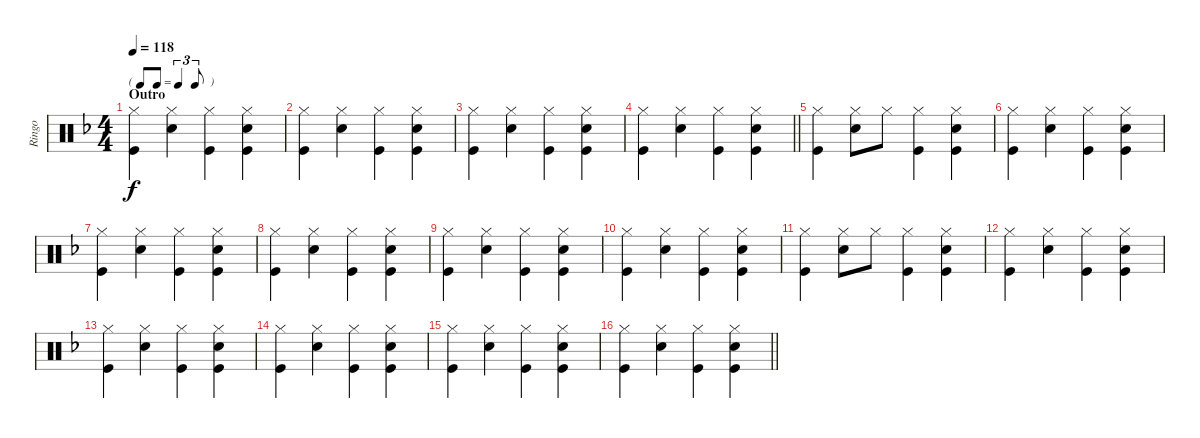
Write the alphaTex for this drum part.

\track ("Ringo" "Ringo") {instrument percussion}
\staff {score}
\articulation defaults
\ts (4 4)
\tf triplet8th
\section ("" "Outro")
\tempo 118
\clef neutral
\ks f
("Hi-Hat (closed)" "Kick (hit)").4{dy f} ("Hi-Hat (closed)" "Snare (hit) 2").4 ("Hi-Hat (closed)" "Kick (hit)").4 ("Hi-Hat (closed)" "Snare (hit) 2" "Kick (hit)").4 |
("Hi-Hat (closed)" "Kick (hit)").4 ("Hi-Hat (closed)" "Snare (hit) 2").4 ("Hi-Hat (closed)" "Kick (hit)").4 ("Hi-Hat (closed)" "Snare (hit) 2" "Kick (hit)").4 |
("Hi-Hat (closed)" "Kick (hit)").4 ("Hi-Hat (closed)" "Snare (hit) 2").4 ("Hi-Hat (closed)" "Kick (hit)").4 ("Hi-Hat (closed)" "Snare (hit) 2" "Kick (hit)").4 |
\barLineRight lightlight
("Hi-Hat (closed)" "Kick (hit)").4 ("Hi-Hat (closed)" "Snare (hit) 2").4 ("Hi-Hat (closed)" "Kick (hit)").4 ("Hi-Hat (closed)" "Snare (hit) 2" "Kick (hit)").4 |
("Hi-Hat (closed)" "Kick (hit)").4 ("Hi-Hat (closed)" "Snare (hit) 2").8 "Hi-Hat (closed)".8 ("Hi-Hat (closed)" "Kick (hit)").4 ("Hi-Hat (closed)" "Snare (hit) 2" "Kick (hit)").4 |
("Hi-Hat (closed)" "Kick (hit)").4 ("Hi-Hat (closed)" "Snare (hit) 2").4 ("Hi-Hat (closed)" "Kick (hit)").4 ("Hi-Hat (closed)" "Snare (hit) 2" "Kick (hit)").4 |
("Hi-Hat (closed)" "Kick (hit)").4 ("Hi-Hat (closed)" "Snare (hit) 2").4 ("Hi-Hat (closed)" "Kick (hit)").4 ("Hi-Hat (closed)" "Snare (hit) 2" "Kick (hit)").4 |
("Hi-Hat (closed)" "Kick (hit)").4 ("Hi-Hat (closed)" "Snare (hit) 2").4 ("Hi-Hat (closed)" "Kick (hit)").4 ("Hi-Hat (closed)" "Snare (hit) 2" "Kick (hit)").4 |
("Hi-Hat (closed)" "Kick (hit)").4 ("Hi-Hat (closed)" "Snare (hit) 2").4 ("Hi-Hat (closed)" "Kick (hit)").4 ("Hi-Hat (closed)" "Snare (hit) 2" "Kick (hit)").4 |
("Hi-Hat (closed)" "Kick (hit)").4 ("Hi-Hat (closed)" "Snare (hit) 2").4 ("Hi-Hat (closed)" "Kick (hit)").4 ("Hi-Hat (closed)" "Snare (hit) 2" "Kick (hit)").4 |
("Hi-Hat (closed)" "Kick (hit)").4 ("Hi-Hat (closed)" "Snare (hit) 2").8 "Hi-Hat (closed)".8 ("Hi-Hat (closed)" "Kick (hit)").4 ("Hi-Hat (closed)" "Snare (hit) 2" "Kick (hit)").4 |
("Hi-Hat (closed)" "Kick (hit)").4 ("Hi-Hat (closed)" "Snare (hit) 2").4 ("Hi-Hat (closed)" "Kick (hit)").4 ("Hi-Hat (closed)" "Snare (hit) 2" "Kick (hit)").4 |
("Hi-Hat (closed)" "Kick (hit)").4 ("Hi-Hat (closed)" "Snare (hit) 2").4 ("Hi-Hat (closed)" "Kick (hit)").4 ("Hi-Hat (closed)" "Snare (hit) 2" "Kick (hit)").4 |
("Hi-Hat (closed)" "Kick (hit)").4 ("Hi-Hat (closed)" "Snare (hit) 2").4 ("Hi-Hat (closed)" "Kick (hit)").4 ("Hi-Hat (closed)" "Snare (hit) 2" "Kick (hit)").4 |
("Hi-Hat (closed)" "Kick (hit)").4 ("Hi-Hat (closed)" "Snare (hit) 2").4 ("Hi-Hat (closed)" "Kick (hit)").4 ("Hi-Hat (closed)" "Snare (hit) 2" "Kick (hit)").4 |
\barLineRight lightlight
("Hi-Hat (closed)" "Kick (hit)").4 ("Hi-Hat (closed)" "Snare (hit) 2").4 ("Hi-Hat (closed)" "Kick (hit)").4 ("Hi-Hat (closed)" "Snare (hit) 2" "Kick (hit)").4
